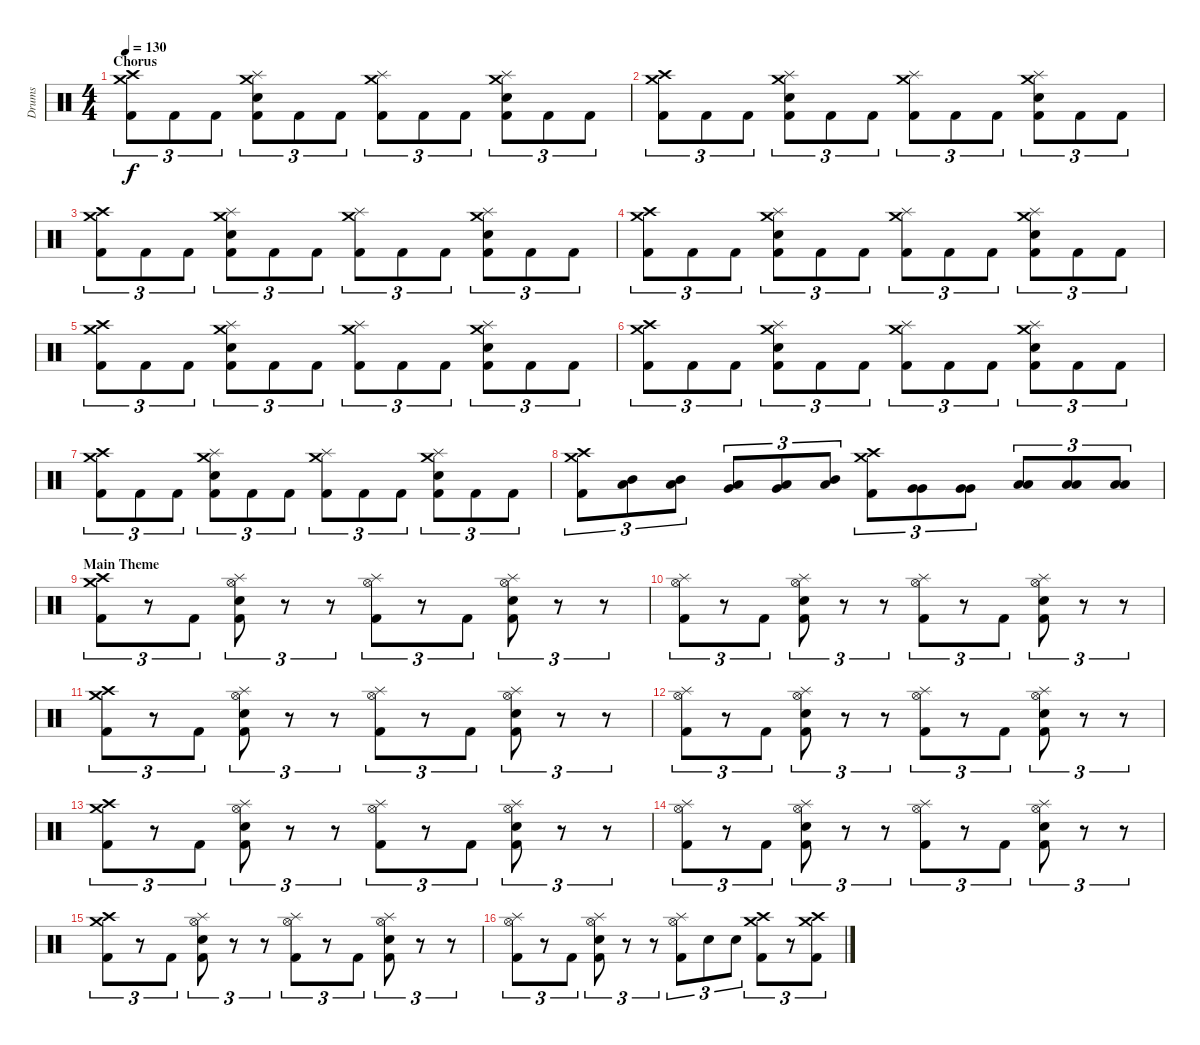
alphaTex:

\track ("Drums" "Drums") {instrument percussion}
\staff {score}
\articulation defaults
\ts (4 4)
\section ("" "Chorus")
\tempo 130
\clef neutral
\ks c
("Crash medium (hit)" "Crash high (hit)" "Kick (hit) 2").8{tu (3 2) dy f} "Kick (hit) 2".8{tu (3 2)} "Kick (hit) 2".8{tu (3 2)} ("Crash medium (hit)" "Splash (hit)" "Snare (hit) 2" "Kick (hit) 2").8{tu (3 2)} "Kick (hit) 2".8{tu (3 2)} "Kick (hit) 2".8{tu (3 2)} ("Crash medium (hit)" "Splash (hit)" "Kick (hit) 2").8{tu (3 2)} "Kick (hit) 2".8{tu (3 2)} "Kick (hit) 2".8{tu (3 2)} ("Crash medium (hit)" "Splash (hit)" "Snare (hit) 2" "Kick (hit) 2").8{tu (3 2)} "Kick (hit) 2".8{tu (3 2)} "Kick (hit) 2".8{tu (3 2)} |
("Crash medium (hit)" "Crash high (hit)" "Kick (hit) 2").8{tu (3 2)} "Kick (hit) 2".8{tu (3 2)} "Kick (hit) 2".8{tu (3 2)} ("Crash medium (hit)" "Splash (hit)" "Snare (hit) 2" "Kick (hit) 2").8{tu (3 2)} "Kick (hit) 2".8{tu (3 2)} "Kick (hit) 2".8{tu (3 2)} ("Crash medium (hit)" "Splash (hit)" "Kick (hit) 2").8{tu (3 2)} "Kick (hit) 2".8{tu (3 2)} "Kick (hit) 2".8{tu (3 2)} ("Crash medium (hit)" "Splash (hit)" "Snare (hit) 2" "Kick (hit) 2").8{tu (3 2)} "Kick (hit) 2".8{tu (3 2)} "Kick (hit) 2".8{tu (3 2)} |
("Crash medium (hit)" "Crash high (hit)" "Kick (hit) 2").8{tu (3 2)} "Kick (hit) 2".8{tu (3 2)} "Kick (hit) 2".8{tu (3 2)} ("Crash medium (hit)" "Splash (hit)" "Snare (hit) 2" "Kick (hit) 2").8{tu (3 2)} "Kick (hit) 2".8{tu (3 2)} "Kick (hit) 2".8{tu (3 2)} ("Crash medium (hit)" "Splash (hit)" "Kick (hit) 2").8{tu (3 2)} "Kick (hit) 2".8{tu (3 2)} "Kick (hit) 2".8{tu (3 2)} ("Crash medium (hit)" "Splash (hit)" "Snare (hit) 2" "Kick (hit) 2").8{tu (3 2)} "Kick (hit) 2".8{tu (3 2)} "Kick (hit) 2".8{tu (3 2)} |
("Crash medium (hit)" "Crash high (hit)" "Kick (hit) 2").8{tu (3 2)} "Kick (hit) 2".8{tu (3 2)} "Kick (hit) 2".8{tu (3 2)} ("Crash medium (hit)" "Splash (hit)" "Snare (hit) 2" "Kick (hit) 2").8{tu (3 2)} "Kick (hit) 2".8{tu (3 2)} "Kick (hit) 2".8{tu (3 2)} ("Crash medium (hit)" "Splash (hit)" "Kick (hit) 2").8{tu (3 2)} "Kick (hit) 2".8{tu (3 2)} "Kick (hit) 2".8{tu (3 2)} ("Crash medium (hit)" "Splash (hit)" "Snare (hit) 2" "Kick (hit) 2").8{tu (3 2)} "Kick (hit) 2".8{tu (3 2)} "Kick (hit) 2".8{tu (3 2)} |
("Crash medium (hit)" "Crash high (hit)" "Kick (hit) 2").8{tu (3 2)} "Kick (hit) 2".8{tu (3 2)} "Kick (hit) 2".8{tu (3 2)} ("Crash medium (hit)" "Splash (hit)" "Snare (hit) 2" "Kick (hit) 2").8{tu (3 2)} "Kick (hit) 2".8{tu (3 2)} "Kick (hit) 2".8{tu (3 2)} ("Crash medium (hit)" "Splash (hit)" "Kick (hit) 2").8{tu (3 2)} "Kick (hit) 2".8{tu (3 2)} "Kick (hit) 2".8{tu (3 2)} ("Crash medium (hit)" "Splash (hit)" "Snare (hit) 2" "Kick (hit) 2").8{tu (3 2)} "Kick (hit) 2".8{tu (3 2)} "Kick (hit) 2".8{tu (3 2)} |
("Crash medium (hit)" "Crash high (hit)" "Kick (hit) 2").8{tu (3 2)} "Kick (hit) 2".8{tu (3 2)} "Kick (hit) 2".8{tu (3 2)} ("Crash medium (hit)" "Splash (hit)" "Snare (hit) 2" "Kick (hit) 2").8{tu (3 2)} "Kick (hit) 2".8{tu (3 2)} "Kick (hit) 2".8{tu (3 2)} ("Crash medium (hit)" "Splash (hit)" "Kick (hit) 2").8{tu (3 2)} "Kick (hit) 2".8{tu (3 2)} "Kick (hit) 2".8{tu (3 2)} ("Crash medium (hit)" "Splash (hit)" "Snare (hit) 2" "Kick (hit) 2").8{tu (3 2)} "Kick (hit) 2".8{tu (3 2)} "Kick (hit) 2".8{tu (3 2)} |
("Crash medium (hit)" "Crash high (hit)" "Kick (hit) 2").8{tu (3 2)} "Kick (hit) 2".8{tu (3 2)} "Kick (hit) 2".8{tu (3 2)} ("Crash medium (hit)" "Splash (hit)" "Snare (hit) 2" "Kick (hit) 2").8{tu (3 2)} "Kick (hit) 2".8{tu (3 2)} "Kick (hit) 2".8{tu (3 2)} ("Crash medium (hit)" "Splash (hit)" "Kick (hit) 2").8{tu (3 2)} "Kick (hit) 2".8{tu (3 2)} "Kick (hit) 2".8{tu (3 2)} ("Crash medium (hit)" "Splash (hit)" "Snare (hit) 2" "Kick (hit) 2").8{tu (3 2)} "Kick (hit) 2".8{tu (3 2)} "Kick (hit) 2".8{tu (3 2)} |
("Crash medium (hit)" "Crash high (hit)" "Kick (hit) 2").8{tu (3 2)} ("Mid Tom (hit)" "Low Tom (hit)").8{tu (3 2)} ("Mid Tom (hit)" "Low Tom (hit)").8{tu (3 2)} ("Low Tom (hit)" "Very Low Tom (hit)").8{tu (3 2)} ("Low Tom (hit)" "Very Low Tom (hit)").8{tu (3 2)} ("Mid Tom (hit)" "Low Tom (hit)").8{tu (3 2)} ("Crash high (hit)" "Crash medium (hit)" "Kick (hit) 2").8{tu (3 2)} ("Very Low Tom (hit)" "Very Low Tom (hit)").8{tu (3 2)} ("Very Low Tom (hit)" "Very Low Tom (hit)").8{tu (3 2)} ("Low Floor Tom (hit)" "Low Floor Tom (hit)").8{tu (3 2)} ("Low Floor Tom (hit)" "Low Floor Tom (hit)").8{tu (3 2)} ("Low Floor Tom (hit)" "Low Floor Tom (hit)").8{tu (3 2)} |
\section ("" "Main Theme")
("Crash medium (hit)" "Crash high (hit)" "Kick (hit) 2").8{tu (3 2)} r.8{tu (3 2)} "Kick (hit) 2".8{tu (3 2)} ("Hi-Hat (open)" "Splash (hit)" "Snare (hit) 2" "Kick (hit) 2").8{tu (3 2)} r.8{tu (3 2)} r.8{tu (3 2)} ("Hi-Hat (open)" "Splash (hit)" "Kick (hit) 2").8{tu (3 2)} r.8{tu (3 2)} "Kick (hit) 2".8{tu (3 2)} ("Hi-Hat (open)" "Splash (hit)" "Snare (hit) 2" "Kick (hit) 2").8{tu (3 2)} r.8{tu (3 2)} r.8{tu (3 2)} |
("Hi-Hat (open)" "Splash (hit)" "Kick (hit) 2").8{tu (3 2)} r.8{tu (3 2)} "Kick (hit) 2".8{tu (3 2)} ("Hi-Hat (open)" "Splash (hit)" "Snare (hit) 2" "Kick (hit) 2").8{tu (3 2)} r.8{tu (3 2)} r.8{tu (3 2)} ("Hi-Hat (open)" "Splash (hit)" "Kick (hit) 2").8{tu (3 2)} r.8{tu (3 2)} "Kick (hit) 2".8{tu (3 2)} ("Hi-Hat (open)" "Splash (hit)" "Snare (hit) 2" "Kick (hit) 2").8{tu (3 2)} r.8{tu (3 2)} r.8{tu (3 2)} |
("Crash medium (hit)" "Crash high (hit)" "Kick (hit) 2").8{tu (3 2)} r.8{tu (3 2)} "Kick (hit) 2".8{tu (3 2)} ("Hi-Hat (open)" "Splash (hit)" "Snare (hit) 2" "Kick (hit) 2").8{tu (3 2)} r.8{tu (3 2)} r.8{tu (3 2)} ("Hi-Hat (open)" "Splash (hit)" "Kick (hit) 2").8{tu (3 2)} r.8{tu (3 2)} "Kick (hit) 2".8{tu (3 2)} ("Hi-Hat (open)" "Splash (hit)" "Snare (hit) 2" "Kick (hit) 2").8{tu (3 2)} r.8{tu (3 2)} r.8{tu (3 2)} |
("Hi-Hat (open)" "Splash (hit)" "Kick (hit) 2").8{tu (3 2)} r.8{tu (3 2)} "Kick (hit) 2".8{tu (3 2)} ("Hi-Hat (open)" "Splash (hit)" "Snare (hit) 2" "Kick (hit) 2").8{tu (3 2)} r.8{tu (3 2)} r.8{tu (3 2)} ("Hi-Hat (open)" "Splash (hit)" "Kick (hit) 2").8{tu (3 2)} r.8{tu (3 2)} "Kick (hit) 2".8{tu (3 2)} ("Hi-Hat (open)" "Splash (hit)" "Snare (hit) 2" "Kick (hit) 2").8{tu (3 2)} r.8{tu (3 2)} r.8{tu (3 2)} |
("Crash medium (hit)" "Crash high (hit)" "Kick (hit) 2").8{tu (3 2)} r.8{tu (3 2)} "Kick (hit) 2".8{tu (3 2)} ("Hi-Hat (open)" "Splash (hit)" "Snare (hit) 2" "Kick (hit) 2").8{tu (3 2)} r.8{tu (3 2)} r.8{tu (3 2)} ("Hi-Hat (open)" "Splash (hit)" "Kick (hit) 2").8{tu (3 2)} r.8{tu (3 2)} "Kick (hit) 2".8{tu (3 2)} ("Hi-Hat (open)" "Splash (hit)" "Snare (hit) 2" "Kick (hit) 2").8{tu (3 2)} r.8{tu (3 2)} r.8{tu (3 2)} |
("Hi-Hat (open)" "Splash (hit)" "Kick (hit) 2").8{tu (3 2)} r.8{tu (3 2)} "Kick (hit) 2".8{tu (3 2)} ("Hi-Hat (open)" "Splash (hit)" "Snare (hit) 2" "Kick (hit) 2").8{tu (3 2)} r.8{tu (3 2)} r.8{tu (3 2)} ("Hi-Hat (open)" "Splash (hit)" "Kick (hit) 2").8{tu (3 2)} r.8{tu (3 2)} "Kick (hit) 2".8{tu (3 2)} ("Hi-Hat (open)" "Splash (hit)" "Snare (hit) 2" "Kick (hit) 2").8{tu (3 2)} r.8{tu (3 2)} r.8{tu (3 2)} |
("Crash medium (hit)" "Crash high (hit)" "Kick (hit) 2").8{tu (3 2)} r.8{tu (3 2)} "Kick (hit) 2".8{tu (3 2)} ("Hi-Hat (open)" "Splash (hit)" "Snare (hit) 2" "Kick (hit) 2").8{tu (3 2)} r.8{tu (3 2)} r.8{tu (3 2)} ("Hi-Hat (open)" "Splash (hit)" "Kick (hit) 2").8{tu (3 2)} r.8{tu (3 2)} "Kick (hit) 2".8{tu (3 2)} ("Hi-Hat (open)" "Splash (hit)" "Snare (hit) 2" "Kick (hit) 2").8{tu (3 2)} r.8{tu (3 2)} r.8{tu (3 2)} |
("Hi-Hat (open)" "Splash (hit)" "Kick (hit) 2").8{tu (3 2)} r.8{tu (3 2)} "Kick (hit) 2".8{tu (3 2)} ("Hi-Hat (open)" "Splash (hit)" "Snare (hit) 2" "Kick (hit) 2").8{tu (3 2)} r.8{tu (3 2)} r.8{tu (3 2)} ("Hi-Hat (open)" "Splash (hit)" "Kick (hit) 2").8{tu (3 2)} "Snare (hit) 2".8{tu (3 2)} "Snare (hit) 2".8{tu (3 2)} ("Crash high (hit)" "Crash medium (hit)" "Kick (hit) 2").8{tu (3 2)} r.8{tu (3 2)} ("Crash high (hit)" "Crash medium (hit)" "Kick (hit) 2").8{tu (3 2)}
